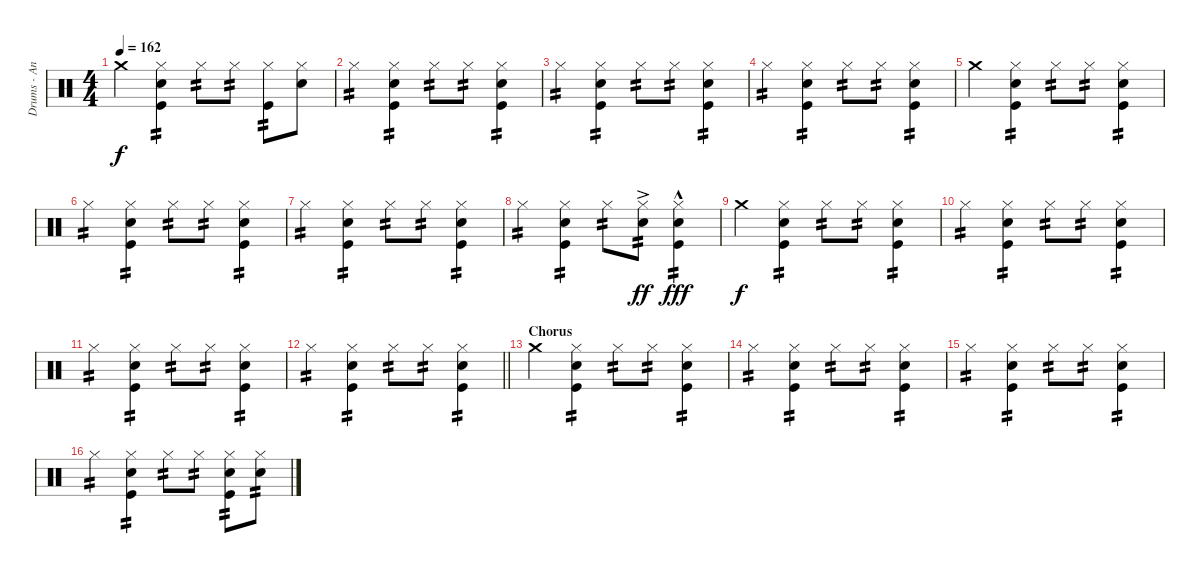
\track ("Drums - Andriushkin" "Drums - An") {instrument percussion}
\staff {score}
\articulation defaults
\ts (4 4)
\tempo 162
\clef neutral
\ks c "Crash medium (hit)".4{dy f}
("Hi-Hat (closed)" "Electric Snare (hit)" "Kick (hit)").4{tp 2} "Hi-Hat (closed)".8{tp 2} "Hi-Hat (closed)".8{tp 2} ("Hi-Hat (closed)" "Kick (hit)").8{tp 2} ("Hi-Hat (closed)" "Electric Snare (hit)").8 |
"Hi-Hat (closed)".4{tp 2} ("Hi-Hat (closed)" "Electric Snare (hit)" "Kick (hit)").4{tp 2} "Hi-Hat (closed)".8{tp 2} "Hi-Hat (closed)".8{tp 2} ("Hi-Hat (closed)" "Electric Snare (hit)" "Kick (hit)").4{tp 2} |
"Hi-Hat (closed)".4{tp 2} ("Hi-Hat (closed)" "Electric Snare (hit)" "Kick (hit)").4{tp 2} "Hi-Hat (closed)".8{tp 2} "Hi-Hat (closed)".8{tp 2} ("Hi-Hat (closed)" "Electric Snare (hit)" "Kick (hit)").4{tp 2} |
"Hi-Hat (closed)".4{tp 2} ("Hi-Hat (closed)" "Electric Snare (hit)" "Kick (hit)").4{tp 2} "Hi-Hat (closed)".8{tp 2} "Hi-Hat (closed)".8{tp 2} ("Hi-Hat (closed)" "Electric Snare (hit)" "Kick (hit)").4{tp 2} |
"Crash medium (hit)".4 ("Hi-Hat (closed)" "Electric Snare (hit)" "Kick (hit)").4{tp 2} "Hi-Hat (closed)".8{tp 2} "Hi-Hat (closed)".8{tp 2} ("Hi-Hat (closed)" "Electric Snare (hit)" "Kick (hit)").4{tp 2} |
"Hi-Hat (closed)".4{tp 2} ("Hi-Hat (closed)" "Electric Snare (hit)" "Kick (hit)").4{tp 2} "Hi-Hat (closed)".8{tp 2} "Hi-Hat (closed)".8{tp 2} ("Hi-Hat (closed)" "Electric Snare (hit)" "Kick (hit)").4{tp 2} |
"Hi-Hat (closed)".4{tp 2} ("Hi-Hat (closed)" "Electric Snare (hit)" "Kick (hit)").4{tp 2} "Hi-Hat (closed)".8{tp 2} "Hi-Hat (closed)".8{tp 2} ("Hi-Hat (closed)" "Electric Snare (hit)" "Kick (hit)").4{tp 2} |
"Hi-Hat (closed)".4{tp 2} ("Hi-Hat (closed)" "Electric Snare (hit)" "Kick (hit)").4{tp 2} "Hi-Hat (closed)".8{tp 2} ("Hi-Hat (closed)" "Electric Snare (hit)"{ac}).8{tp 2 dy ff} ("Hi-Hat (closed)" "Electric Snare (hit)"{hac} "Kick (hit)").4{tp 2 dy fff} |
"Crash medium (hit)".4{dy f} ("Hi-Hat (closed)" "Electric Snare (hit)" "Kick (hit)").4{tp 2} "Hi-Hat (closed)".8{tp 2} "Hi-Hat (closed)".8{tp 2} ("Hi-Hat (closed)" "Electric Snare (hit)" "Kick (hit)").4{tp 2} |
"Hi-Hat (closed)".4{tp 2} ("Hi-Hat (closed)" "Electric Snare (hit)" "Kick (hit)").4{tp 2} "Hi-Hat (closed)".8{tp 2} "Hi-Hat (closed)".8{tp 2} ("Hi-Hat (closed)" "Electric Snare (hit)" "Kick (hit)").4{tp 2} |
"Hi-Hat (closed)".4{tp 2} ("Hi-Hat (closed)" "Electric Snare (hit)" "Kick (hit)").4{tp 2} "Hi-Hat (closed)".8{tp 2} "Hi-Hat (closed)".8{tp 2} ("Hi-Hat (closed)" "Electric Snare (hit)" "Kick (hit)").4{tp 2} |
\barLineRight lightlight "Hi-Hat (closed)".4{tp 2}
("Hi-Hat (closed)" "Electric Snare (hit)" "Kick (hit)").4{tp 2} "Hi-Hat (closed)".8{tp 2} "Hi-Hat (closed)".8{tp 2} ("Hi-Hat (closed)" "Electric Snare (hit)" "Kick (hit)").4{tp 2} |
\section ("" "Chorus")
"Crash medium (hit)".4 ("Hi-Hat (closed)" "Electric Snare (hit)" "Kick (hit)").4{tp 2} "Hi-Hat (closed)".8{tp 2} "Hi-Hat (closed)".8{tp 2} ("Hi-Hat (closed)" "Electric Snare (hit)" "Kick (hit)").4{tp 2} |
"Hi-Hat (closed)".4{tp 2} ("Hi-Hat (closed)" "Electric Snare (hit)" "Kick (hit)").4{tp 2} "Hi-Hat (closed)".8{tp 2} "Hi-Hat (closed)".8{tp 2} ("Hi-Hat (closed)" "Electric Snare (hit)" "Kick (hit)").4{tp 2} |
"Hi-Hat (closed)".4{tp 2} ("Hi-Hat (closed)" "Electric Snare (hit)" "Kick (hit)").4{tp 2} "Hi-Hat (closed)".8{tp 2} "Hi-Hat (closed)".8{tp 2} ("Hi-Hat (closed)" "Electric Snare (hit)" "Kick (hit)").4{tp 2} |
"Hi-Hat (closed)".4{tp 2} ("Hi-Hat (closed)" "Electric Snare (hit)" "Kick (hit)").4{tp 2} "Hi-Hat (closed)".8{tp 2} "Hi-Hat (closed)".8{tp 2} ("Hi-Hat (closed)" "Electric Snare (hit)" "Kick (hit)").8{tp 2} ("Hi-Hat (closed)" "Electric Snare (hit)").8{tp 2}
